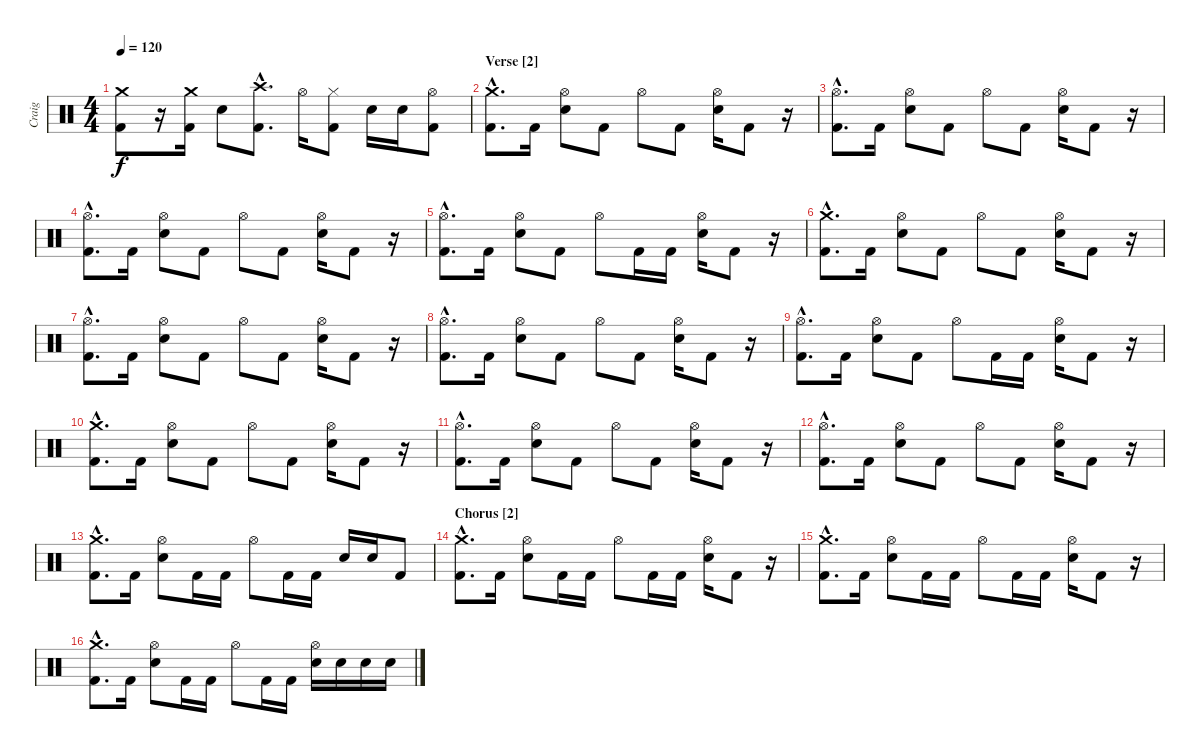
\track ("Craig" "Craig") {instrument percussion}
\staff {score}
\articulation defaults
\ts (4 4)
\tempo 120
\clef neutral
\ks c
("Crash medium (hit)" "Kick (hit) 2").8{dy f} r.16 ("Crash medium (hit)" "Kick (hit) 2").16 "Electric Snare (hit)".8 ("Crash high (hit)"{hac} "Kick (hit) 2"{hac}).8{d} "Hi-Hat (open)".16 ("Hi-Hat (closed)" "Kick (hit) 2").8 "Electric Snare (hit)".16 "Electric Snare (hit)".16 ("Hi-Hat (open)" "Kick (hit) 2").8 |
\section ("" "Verse [2]")
("Crash medium (hit)"{hac} "Kick (hit) 2"{hac}).8{d} "Kick (hit) 2".16 ("Hi-Hat (open)" "Electric Snare (hit)").8 "Kick (hit) 2".8 "Hi-Hat (open)".8 "Kick (hit) 2".8 ("Hi-Hat (open)" "Electric Snare (hit)").16 "Kick (hit) 2".8 r.16 |
("Hi-Hat (open)"{hac} "Kick (hit) 2"{hac}).8{d} "Kick (hit) 2".16 ("Hi-Hat (open)" "Electric Snare (hit)").8 "Kick (hit) 2".8 "Hi-Hat (open)".8 "Kick (hit) 2".8 ("Hi-Hat (open)" "Electric Snare (hit)").16 "Kick (hit) 2".8 r.16 |
("Hi-Hat (open)"{hac} "Kick (hit) 2"{hac}).8{d} "Kick (hit) 2".16 ("Hi-Hat (open)" "Electric Snare (hit)").8 "Kick (hit) 2".8 "Hi-Hat (open)".8 "Kick (hit) 2".8 ("Hi-Hat (open)" "Electric Snare (hit)").16 "Kick (hit) 2".8 r.16 |
("Hi-Hat (open)"{hac} "Kick (hit) 2"{hac}).8{d} "Kick (hit) 2".16 ("Hi-Hat (open)" "Electric Snare (hit)").8 "Kick (hit) 2".8 "Hi-Hat (open)".8 "Kick (hit) 2".16 "Kick (hit) 2".16 ("Hi-Hat (open)" "Electric Snare (hit)").16 "Kick (hit) 2".8 r.16 |
("Crash medium (hit)"{hac} "Kick (hit) 2"{hac}).8{d} "Kick (hit) 2".16 ("Hi-Hat (open)" "Electric Snare (hit)").8 "Kick (hit) 2".8 "Hi-Hat (open)".8 "Kick (hit) 2".8 ("Hi-Hat (open)" "Electric Snare (hit)").16 "Kick (hit) 2".8 r.16 |
("Hi-Hat (open)"{hac} "Kick (hit) 2"{hac}).8{d} "Kick (hit) 2".16 ("Hi-Hat (open)" "Electric Snare (hit)").8 "Kick (hit) 2".8 "Hi-Hat (open)".8 "Kick (hit) 2".8 ("Hi-Hat (open)" "Electric Snare (hit)").16 "Kick (hit) 2".8 r.16 |
("Hi-Hat (open)"{hac} "Kick (hit) 2"{hac}).8{d} "Kick (hit) 2".16 ("Hi-Hat (open)" "Electric Snare (hit)").8 "Kick (hit) 2".8 "Hi-Hat (open)".8 "Kick (hit) 2".8 ("Hi-Hat (open)" "Electric Snare (hit)").16 "Kick (hit) 2".8 r.16 |
("Hi-Hat (open)"{hac} "Kick (hit) 2"{hac}).8{d} "Kick (hit) 2".16 ("Hi-Hat (open)" "Electric Snare (hit)").8 "Kick (hit) 2".8 "Hi-Hat (open)".8 "Kick (hit) 2".16 "Kick (hit) 2".16 ("Hi-Hat (open)" "Electric Snare (hit)").16 "Kick (hit) 2".8 r.16 |
("Crash medium (hit)"{hac} "Kick (hit) 2"{hac}).8{d} "Kick (hit) 2".16 ("Hi-Hat (open)" "Electric Snare (hit)").8 "Kick (hit) 2".8 "Hi-Hat (open)".8 "Kick (hit) 2".8 ("Hi-Hat (open)" "Electric Snare (hit)").16 "Kick (hit) 2".8 r.16 |
("Hi-Hat (open)"{hac} "Kick (hit) 2"{hac}).8{d} "Kick (hit) 2".16 ("Hi-Hat (open)" "Electric Snare (hit)").8 "Kick (hit) 2".8 "Hi-Hat (open)".8 "Kick (hit) 2".8 ("Hi-Hat (open)" "Electric Snare (hit)").16 "Kick (hit) 2".8 r.16 |
("Hi-Hat (open)"{hac} "Kick (hit) 2"{hac}).8{d} "Kick (hit) 2".16 ("Hi-Hat (open)" "Electric Snare (hit)").8 "Kick (hit) 2".8 "Hi-Hat (open)".8 "Kick (hit) 2".8 ("Hi-Hat (open)" "Electric Snare (hit)").16 "Kick (hit) 2".8 r.16 |
("Crash medium (hit)"{hac} "Kick (hit) 2"{hac}).8{d} "Kick (hit) 2".16 ("Hi-Hat (open)" "Electric Snare (hit)").8 "Kick (hit) 2".16 "Kick (hit) 2".16 "Hi-Hat (open)".8 "Kick (hit) 2".16 "Kick (hit) 2".16 "Electric Snare (hit)".16 "Electric Snare (hit)".16 "Kick (hit) 2".8 |
\section ("" "Chorus [2]")
("Crash medium (hit)"{hac} "Kick (hit) 2"{hac}).8{d} "Kick (hit) 2".16 ("Hi-Hat (open)" "Electric Snare (hit)").8 "Kick (hit) 2".16 "Kick (hit) 2".16 "Hi-Hat (open)".8 "Kick (hit) 2".16 "Kick (hit) 2".16 ("Hi-Hat (open)" "Electric Snare (hit)").16 "Kick (hit) 2".8 r.16 |
("Crash medium (hit)"{hac} "Kick (hit) 2"{hac}).8{d} "Kick (hit) 2".16 ("Hi-Hat (open)" "Electric Snare (hit)").8 "Kick (hit) 2".16 "Kick (hit) 2".16 "Hi-Hat (open)".8 "Kick (hit) 2".16 "Kick (hit) 2".16 ("Hi-Hat (open)" "Electric Snare (hit)").16 "Kick (hit) 2".8 r.16 |
("Crash medium (hit)"{hac} "Kick (hit) 2"{hac}).8{d} "Kick (hit) 2".16 ("Hi-Hat (open)" "Electric Snare (hit)").8 "Kick (hit) 2".16 "Kick (hit) 2".16 "Hi-Hat (open)".8 "Kick (hit) 2".16 "Kick (hit) 2".16 ("Hi-Hat (open)" "Electric Snare (hit)").16 "Electric Snare (hit)".16 "Electric Snare (hit)".16 "Electric Snare (hit)".16
